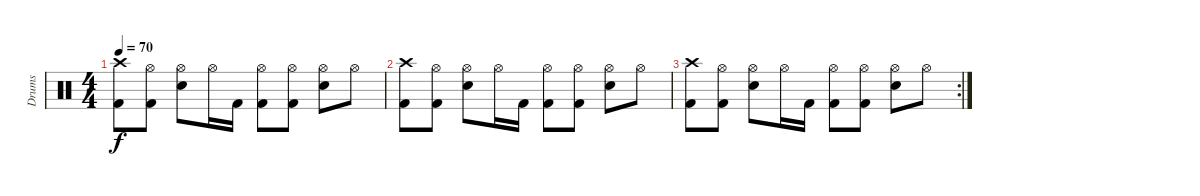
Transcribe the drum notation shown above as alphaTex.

\track ("Drums" "Drums") {instrument percussion bank 10}
\staff {score}
\articulation defaults
\ts (4 4)
\tempo 70
\clef neutral
\ks c
("Crash high (hit)" "Kick (hit) 2").8{dy f} ("Hi-Hat (open)" "Kick (hit) 2").8 ("Hi-Hat (open)" "Snare (hit) 2").8 "Hi-Hat (open)".16 "Kick (hit) 2".16 ("Hi-Hat (open)" "Kick (hit) 2").8 ("Hi-Hat (open)" "Kick (hit) 2").8 ("Hi-Hat (open)" "Snare (hit) 2").8 "Hi-Hat (open)".8 |
("Crash high (hit)" "Kick (hit) 2").8 ("Hi-Hat (open)" "Kick (hit) 2").8 ("Hi-Hat (open)" "Snare (hit) 2").8 "Hi-Hat (open)".16 "Kick (hit) 2".16 ("Hi-Hat (open)" "Kick (hit) 2").8 ("Hi-Hat (open)" "Kick (hit) 2").8 ("Hi-Hat (open)" "Snare (hit) 2").8 "Hi-Hat (open)".8 |
\rc 2
("Crash high (hit)" "Kick (hit) 2").8 ("Hi-Hat (open)" "Kick (hit) 2").8 ("Hi-Hat (open)" "Snare (hit) 2").8 "Hi-Hat (open)".16 "Kick (hit) 2".16 ("Hi-Hat (open)" "Kick (hit) 2").8 ("Hi-Hat (open)" "Kick (hit) 2").8 ("Hi-Hat (open)" "Snare (hit) 2").8 "Hi-Hat (open)".8
